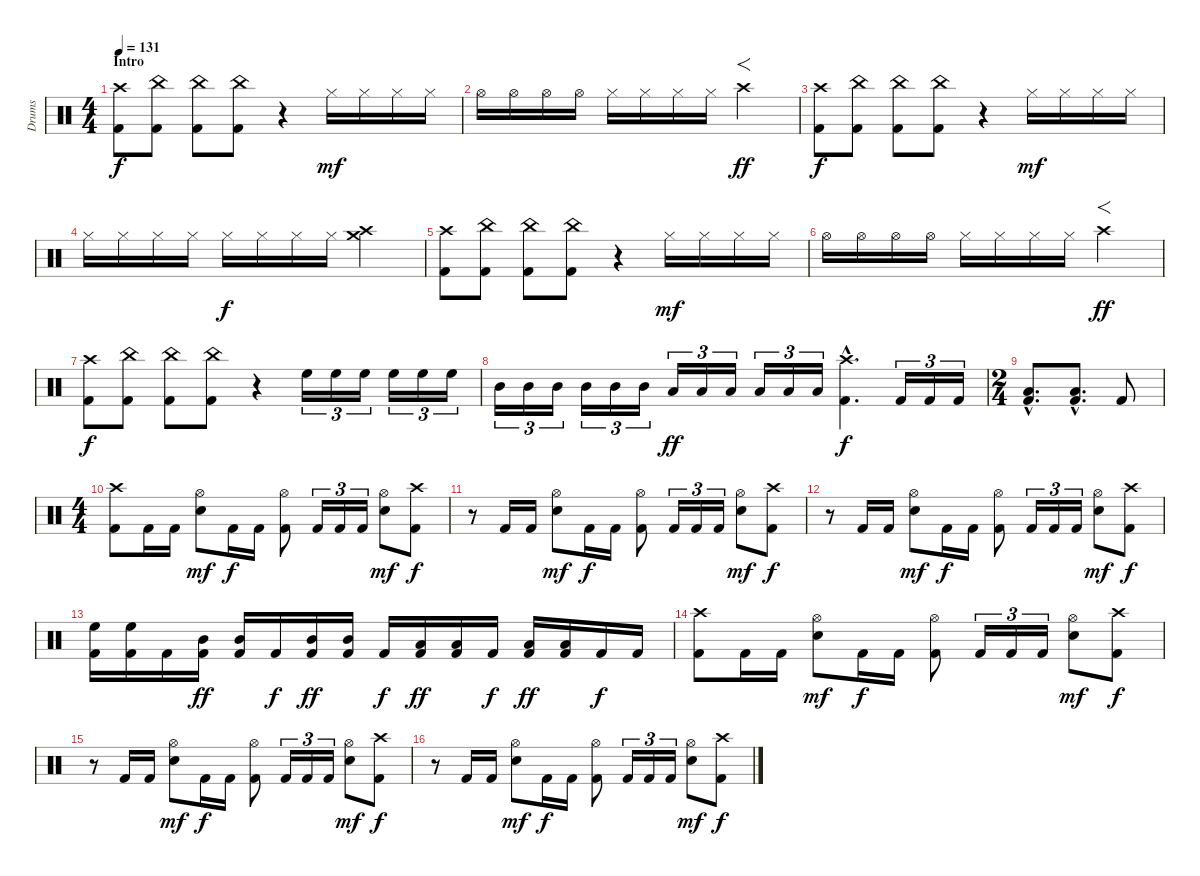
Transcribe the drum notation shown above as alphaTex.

\track ("Drums" "Drums") {instrument percussion}
\staff {score}
\articulation defaults
\ts (4 4)
\section ("" "Intro")
\tempo 131
\clef neutral
\ks c
("Crash high (hit)" "Kick (hit) 2").8{dy f} ("China (hit)" "Kick (hit) 2").8 ("China (hit)" "Kick (hit) 2").8 ("China (hit)" "Kick (hit) 2").8 r.4 "Hi-Hat (closed)".16{dy mf} "Hi-Hat (closed)".16 "Hi-Hat (closed)".16 "Hi-Hat (closed)".16 |
"Hi-Hat (open)".16 "Hi-Hat (open)".16 "Hi-Hat (open)".16 "Hi-Hat (open)".16 "Hi-Hat (closed)".16 "Hi-Hat (closed)".16 "Hi-Hat (closed)".16 "Hi-Hat (closed)".16 "Crash high (hit)".2{f dy ff} |
("Crash high (hit)" "Kick (hit) 2").8{dy f} ("China (hit)" "Kick (hit) 2").8 ("China (hit)" "Kick (hit) 2").8 ("China (hit)" "Kick (hit) 2").8 r.4 "Hi-Hat (closed)".16{dy mf} "Hi-Hat (closed)".16 "Hi-Hat (closed)".16 "Hi-Hat (closed)".16 |
"Hi-Hat (closed)".16 "Hi-Hat (closed)".16 "Hi-Hat (closed)".16 "Hi-Hat (closed)".16 "Hi-Hat (closed)".16{dy f} "Hi-Hat (closed)".16 "Hi-Hat (closed)".16 "Hi-Hat (closed)".16 ("Crash medium (hit)" "Crash high (hit)").2 |
("Crash high (hit)" "Kick (hit) 2").8 ("China (hit)" "Kick (hit) 2").8 ("China (hit)" "Kick (hit) 2").8 ("China (hit)" "Kick (hit) 2").8 r.4 "Hi-Hat (closed)".16{dy mf} "Hi-Hat (closed)".16 "Hi-Hat (closed)".16 "Hi-Hat (closed)".16 |
"Hi-Hat (open)".16 "Hi-Hat (open)".16 "Hi-Hat (open)".16 "Hi-Hat (open)".16 "Hi-Hat (closed)".16 "Hi-Hat (closed)".16 "Hi-Hat (closed)".16 "Hi-Hat (closed)".16 "Crash high (hit)".2{f dy ff} |
("Crash high (hit)" "Kick (hit) 2").8{dy f} ("China (hit)" "Kick (hit) 2").8 ("China (hit)" "Kick (hit) 2").8 ("China (hit)" "Kick (hit) 2").8 r.4 "High Floor Tom (hit)".16{tu (3 2)} "High Floor Tom (hit)".16{tu (3 2)} "High Floor Tom (hit)".16{tu (3 2)} "High Floor Tom (hit)".16{tu (3 2)} "High Floor Tom (hit)".16{tu (3 2)} "High Floor Tom (hit)".16{tu (3 2)} |
"Mid Tom (hit)".16{tu (3 2)} "Mid Tom (hit)".16{tu (3 2)} "Mid Tom (hit)".16{tu (3 2)} "Mid Tom (hit)".16{tu (3 2)} "Mid Tom (hit)".16{tu (3 2)} "Mid Tom (hit)".16{tu (3 2)} "Low Tom (hit)".16{tu (3 2) dy ff} "Low Tom (hit)".16{tu (3 2)} "Low Tom (hit)".16{tu (3 2)} "Low Tom (hit)".16{tu (3 2)} "Low Tom (hit)".16{tu (3 2)} "Low Tom (hit)".16{tu (3 2)} ("Crash high (hit)"{hac} "Kick (hit) 2"{hac}).4{d dy f} "Kick (hit) 2".16{tu (3 2)} "Kick (hit) 2".16{tu (3 2)} "Kick (hit) 2".16{tu (3 2)} |
\ts (2 4)
("Low Tom (hit)"{hac} "Kick (hit) 2"{hac}).8{d} ("Low Tom (hit)"{hac} "Kick (hit) 2"{hac}).8{d} "Kick (hit) 2".8 |
\ts (4 4)
\section ("" "")
("Crash high (hit)" "Kick (hit) 2").8 "Kick (hit) 2".16 "Kick (hit) 2".16 ("Hi-Hat (open)" "Snare (hit) 2").8{dy mf} "Kick (hit) 2".16{dy f} "Kick (hit) 2".16 ("Hi-Hat (open)" "Kick (hit) 2").8 "Kick (hit) 2".16{tu (3 2)} "Kick (hit) 2".16{tu (3 2)} "Kick (hit) 2".16{tu (3 2)} ("Hi-Hat (open)" "Snare (hit) 2").8{dy mf} ("Crash high (hit)" "Kick (hit) 2").8{dy f} |
r.8 "Kick (hit) 2".16 "Kick (hit) 2".16 ("Hi-Hat (open)" "Snare (hit) 2").8{dy mf} "Kick (hit) 2".16{dy f} "Kick (hit) 2".16 ("Hi-Hat (open)" "Kick (hit) 2").8 "Kick (hit) 2".16{tu (3 2)} "Kick (hit) 2".16{tu (3 2)} "Kick (hit) 2".16{tu (3 2)} ("Hi-Hat (open)" "Snare (hit) 2").8{dy mf} ("Crash high (hit)" "Kick (hit) 2").8{dy f} |
r.8 "Kick (hit) 2".16 "Kick (hit) 2".16 ("Hi-Hat (open)" "Snare (hit) 2").8{dy mf} "Kick (hit) 2".16{dy f} "Kick (hit) 2".16 ("Hi-Hat (open)" "Kick (hit) 2").8 "Kick (hit) 2".16{tu (3 2)} "Kick (hit) 2".16{tu (3 2)} "Kick (hit) 2".16{tu (3 2)} ("Hi-Hat (open)" "Snare (hit) 2").8{dy mf} ("Crash high (hit)" "Kick (hit) 2").8{dy f} |
("High Floor Tom (hit)" "Kick (hit) 2").16 ("High Floor Tom (hit)" "Kick (hit) 2").16 "Kick (hit) 2".16 ("Mid Tom (hit)" "Kick (hit) 2").16{dy ff} ("Mid Tom (hit)" "Kick (hit) 2").16 "Kick (hit) 2".16{dy f} ("Mid Tom (hit)" "Kick (hit) 2").16{dy ff} ("Mid Tom (hit)" "Kick (hit) 2").16 "Kick (hit) 2".16{dy f} ("Low Tom (hit)" "Kick (hit) 2").16{dy ff} ("Low Tom (hit)" "Kick (hit) 2").16 "Kick (hit) 2".16{dy f} ("Low Tom (hit)" "Kick (hit) 2").16{dy ff} ("Low Tom (hit)" "Kick (hit) 2").16 "Kick (hit) 2".16{dy f} "Kick (hit) 2".16 |
("Crash high (hit)" "Kick (hit) 2").8 "Kick (hit) 2".16 "Kick (hit) 2".16 ("Hi-Hat (open)" "Snare (hit) 2").8{dy mf} "Kick (hit) 2".16{dy f} "Kick (hit) 2".16 ("Hi-Hat (open)" "Kick (hit) 2").8 "Kick (hit) 2".16{tu (3 2)} "Kick (hit) 2".16{tu (3 2)} "Kick (hit) 2".16{tu (3 2)} ("Hi-Hat (open)" "Snare (hit) 2").8{dy mf} ("Crash high (hit)" "Kick (hit) 2").8{dy f} |
r.8 "Kick (hit) 2".16 "Kick (hit) 2".16 ("Hi-Hat (open)" "Snare (hit) 2").8{dy mf} "Kick (hit) 2".16{dy f} "Kick (hit) 2".16 ("Hi-Hat (open)" "Kick (hit) 2").8 "Kick (hit) 2".16{tu (3 2)} "Kick (hit) 2".16{tu (3 2)} "Kick (hit) 2".16{tu (3 2)} ("Hi-Hat (open)" "Snare (hit) 2").8{dy mf} ("Crash high (hit)" "Kick (hit) 2").8{dy f} |
r.8 "Kick (hit) 2".16 "Kick (hit) 2".16 ("Hi-Hat (open)" "Snare (hit) 2").8{dy mf} "Kick (hit) 2".16{dy f} "Kick (hit) 2".16 ("Hi-Hat (open)" "Kick (hit) 2").8 "Kick (hit) 2".16{tu (3 2)} "Kick (hit) 2".16{tu (3 2)} "Kick (hit) 2".16{tu (3 2)} ("Hi-Hat (open)" "Snare (hit) 2").8{dy mf} ("Crash high (hit)" "Kick (hit) 2").8{dy f}
